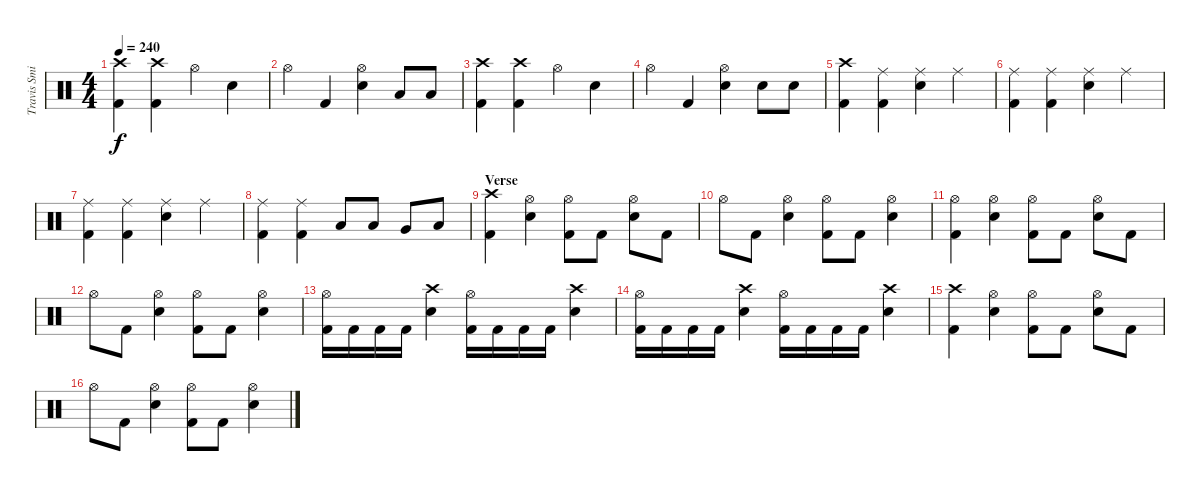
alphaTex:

\track ("Travis Smith (Drums)" "Travis Smi") {instrument percussion}
\staff {score}
\articulation defaults
\ts (4 4)
\tempo 240
\clef neutral
\ks c
("Kick (hit) 2" "Crash high (hit)").4{dy f} ("Kick (hit) 2" "Crash high (hit)").4 "Hi-Hat (open)".4 "Snare (hit) 2".4 |
"Hi-Hat (open)".4 "Kick (hit) 2".4 ("Snare (hit) 2" "Hi-Hat (open)").4 "Low Tom (hit)".8 "Low Tom (hit)".8 |
("Kick (hit) 2" "Crash high (hit)").4 ("Kick (hit) 2" "Crash high (hit)").4 "Hi-Hat (open)".4 "Snare (hit) 2".4 |
"Hi-Hat (open)".4 "Kick (hit) 2".4 ("Snare (hit) 2" "Hi-Hat (open)").4 "Snare (hit) 2".8 "Snare (hit) 2".8 |
("Kick (hit) 2" "Crash high (hit)").4 ("Kick (hit) 2" "Ride (middle)").4 ("Snare (hit) 2" "Ride (middle)").4 "Ride (middle)".4 |
("Kick (hit) 2" "Ride (middle)").4 ("Kick (hit) 2" "Ride (middle)").4 ("Snare (hit) 2" "Ride (middle)").4 "Ride (middle)".4 |
("Kick (hit) 2" "Ride (middle)").4 ("Kick (hit) 2" "Ride (middle)").4 ("Snare (hit) 2" "Ride (middle)").4 "Ride (middle)".4 |
("Kick (hit) 2" "Ride (middle)").4 ("Kick (hit) 2" "Ride (middle)").4 "Low Tom (hit)".8 "Low Tom (hit)".8 "Very Low Tom (hit)".8 "Low Floor Tom (hit)".8 |
\section ("" "Verse")
("Kick (hit) 2" "Crash high (hit)").4 ("Snare (hit) 2" "Hi-Hat (open)").4 ("Kick (hit) 2" "Hi-Hat (open)").8 "Kick (hit) 2".8 ("Snare (hit) 2" "Hi-Hat (open)").8 "Kick (hit) 2".8 |
"Hi-Hat (open)".8 "Kick (hit) 2".8 ("Snare (hit) 2" "Hi-Hat (open)").4 ("Kick (hit) 2" "Hi-Hat (open)").8 "Kick (hit) 2".8 ("Snare (hit) 2" "Hi-Hat (open)").4 |
("Kick (hit) 2" "Hi-Hat (open)").4 ("Snare (hit) 2" "Hi-Hat (open)").4 ("Kick (hit) 2" "Hi-Hat (open)").8 "Kick (hit) 2".8 ("Snare (hit) 2" "Hi-Hat (open)").8 "Kick (hit) 2".8 |
"Hi-Hat (open)".8 "Kick (hit) 2".8 ("Snare (hit) 2" "Hi-Hat (open)").4 ("Kick (hit) 2" "Hi-Hat (open)").8 "Kick (hit) 2".8 ("Snare (hit) 2" "Hi-Hat (open)").4 |
("Kick (hit) 2" "Hi-Hat (open)").16 "Kick (hit) 2".16 "Kick (hit) 2".16 "Kick (hit) 2".16 ("Snare (hit) 2" "Crash high (hit)").4 ("Kick (hit) 2" "Hi-Hat (open)").16 "Kick (hit) 2".16 "Kick (hit) 2".16 "Kick (hit) 2".16 ("Snare (hit) 2" "Crash high (hit)").4 |
("Kick (hit) 2" "Hi-Hat (open)").16 "Kick (hit) 2".16 "Kick (hit) 2".16 "Kick (hit) 2".16 ("Snare (hit) 2" "Crash high (hit)").4 ("Kick (hit) 2" "Hi-Hat (open)").16 "Kick (hit) 2".16 "Kick (hit) 2".16 "Kick (hit) 2".16 ("Snare (hit) 2" "Crash high (hit)").4 |
("Kick (hit) 2" "Crash high (hit)").4 ("Snare (hit) 2" "Hi-Hat (open)").4 ("Kick (hit) 2" "Hi-Hat (open)").8 "Kick (hit) 2".8 ("Snare (hit) 2" "Hi-Hat (open)").8 "Kick (hit) 2".8 |
"Hi-Hat (open)".8 "Kick (hit) 2".8 ("Snare (hit) 2" "Hi-Hat (open)").4 ("Kick (hit) 2" "Hi-Hat (open)").8 "Kick (hit) 2".8 ("Snare (hit) 2" "Hi-Hat (open)").4
